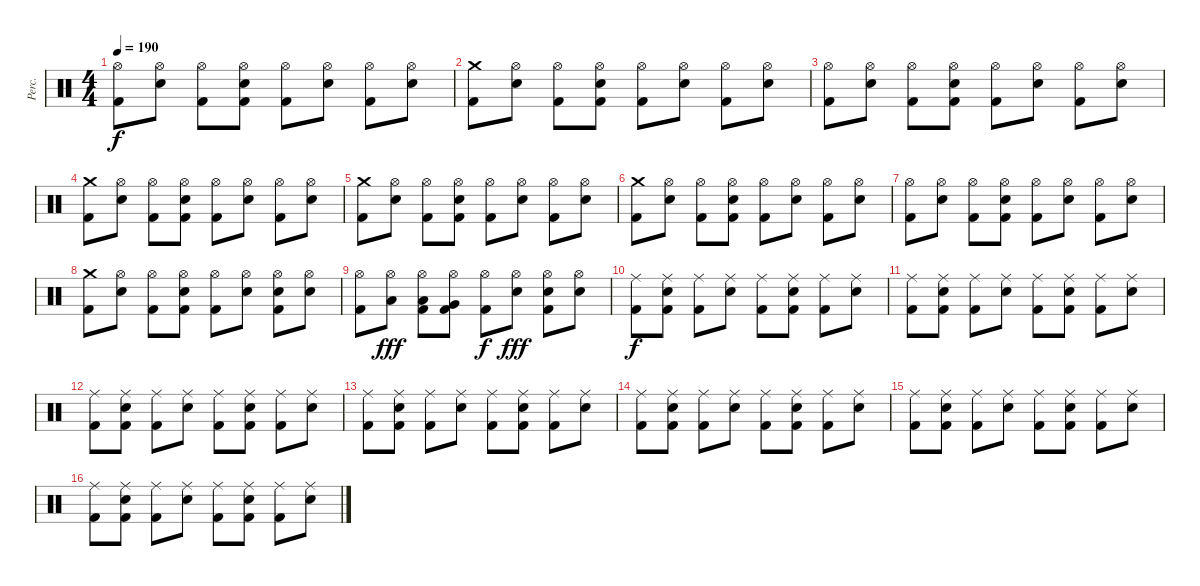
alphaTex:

\track ("Perc." "Perc.") {instrument percussion}
\staff {score}
\articulation defaults
\ts (4 4)
\tempo 190
\clef neutral
\ks c
("Hi-Hat (open)" "Kick (hit) 2").8{dy f} ("Hi-Hat (open)" "Snare (hit) 2").8 ("Hi-Hat (open)" "Kick (hit) 2").8 ("Hi-Hat (open)" "Snare (hit) 2" "Kick (hit) 2").8 ("Hi-Hat (open)" "Kick (hit) 2").8 ("Hi-Hat (open)" "Snare (hit) 2").8 ("Hi-Hat (open)" "Kick (hit) 2").8 ("Hi-Hat (open)" "Snare (hit) 2").8 |
("Crash medium (hit)" "Kick (hit) 2").8 ("Hi-Hat (open)" "Snare (hit) 2").8 ("Hi-Hat (open)" "Kick (hit) 2").8 ("Hi-Hat (open)" "Snare (hit) 2" "Kick (hit) 2").8 ("Hi-Hat (open)" "Kick (hit) 2").8 ("Hi-Hat (open)" "Snare (hit) 2").8 ("Hi-Hat (open)" "Kick (hit) 2").8 ("Hi-Hat (open)" "Snare (hit) 2").8 |
("Hi-Hat (open)" "Kick (hit) 2").8 ("Hi-Hat (open)" "Snare (hit) 2").8 ("Hi-Hat (open)" "Kick (hit) 2").8 ("Hi-Hat (open)" "Snare (hit) 2" "Kick (hit) 2").8 ("Hi-Hat (open)" "Kick (hit) 2").8 ("Hi-Hat (open)" "Snare (hit) 2").8 ("Hi-Hat (open)" "Kick (hit) 2").8 ("Hi-Hat (open)" "Snare (hit) 2").8 |
("Crash medium (hit)" "Kick (hit) 2").8 ("Hi-Hat (open)" "Snare (hit) 2").8 ("Hi-Hat (open)" "Kick (hit) 2").8 ("Hi-Hat (open)" "Snare (hit) 2" "Kick (hit) 2").8 ("Hi-Hat (open)" "Kick (hit) 2").8 ("Hi-Hat (open)" "Snare (hit) 2").8 ("Hi-Hat (open)" "Kick (hit) 2").8 ("Hi-Hat (open)" "Snare (hit) 2").8 |
("Crash medium (hit)" "Kick (hit) 2").8 ("Hi-Hat (open)" "Snare (hit) 2").8 ("Hi-Hat (open)" "Kick (hit) 2").8 ("Hi-Hat (open)" "Snare (hit) 2" "Kick (hit) 2").8 ("Hi-Hat (open)" "Kick (hit) 2").8 ("Hi-Hat (open)" "Snare (hit) 2").8 ("Hi-Hat (open)" "Kick (hit) 2").8 ("Hi-Hat (open)" "Snare (hit) 2").8 |
("Crash medium (hit)" "Kick (hit) 2").8 ("Hi-Hat (open)" "Snare (hit) 2").8 ("Hi-Hat (open)" "Kick (hit) 2").8 ("Hi-Hat (open)" "Snare (hit) 2" "Kick (hit) 2").8 ("Hi-Hat (open)" "Kick (hit) 2").8 ("Hi-Hat (open)" "Snare (hit) 2").8 ("Hi-Hat (open)" "Kick (hit) 2").8 ("Hi-Hat (open)" "Snare (hit) 2").8 |
("Hi-Hat (open)" "Kick (hit) 2").8 ("Hi-Hat (open)" "Snare (hit) 2").8 ("Hi-Hat (open)" "Kick (hit) 2").8 ("Hi-Hat (open)" "Snare (hit) 2" "Kick (hit) 2").8 ("Hi-Hat (open)" "Kick (hit) 2").8 ("Hi-Hat (open)" "Snare (hit) 2").8 ("Hi-Hat (open)" "Kick (hit) 2").8 ("Hi-Hat (open)" "Snare (hit) 2").8 |
("Crash medium (hit)" "Kick (hit) 2").8 ("Hi-Hat (open)" "Snare (hit) 2").8 ("Hi-Hat (open)" "Kick (hit) 2").8 ("Hi-Hat (open)" "Snare (hit) 2" "Kick (hit) 2").8 ("Hi-Hat (open)" "Kick (hit) 2").8 ("Hi-Hat (open)" "Snare (hit) 2").8 ("Hi-Hat (open)" "Snare (hit) 2" "Kick (hit) 2").8 ("Hi-Hat (open)" "Snare (hit) 2").8 |
("Hi-Hat (open)" "Kick (hit) 2").8 ("Hi-Hat (open)" "Low Tom (hit)").8{dy fff} ("Hi-Hat (open)" "Low Tom (hit)" "Kick (hit) 2").8 ("Hi-Hat (open)" "Very Low Tom (hit)" "Kick (hit) 2").8 ("Hi-Hat (open)" "Kick (hit) 2").8{dy f} ("Hi-Hat (open)" "Snare (hit) 2").8{dy fff} ("Hi-Hat (open)" "Snare (hit) 2" "Kick (hit) 2").8 ("Hi-Hat (open)" "Snare (hit) 2").8 |
("Kick (hit) 2" "Ride (middle)").8{dy f} ("Kick (hit) 2" "Snare (hit) 2" "Ride (middle)").8 ("Kick (hit) 2" "Ride (middle)").8 ("Snare (hit) 2" "Ride (middle)").8 ("Kick (hit) 2" "Ride (middle)").8 ("Kick (hit) 2" "Snare (hit) 2" "Ride (middle)").8 ("Kick (hit) 2" "Ride (middle)").8 ("Snare (hit) 2" "Ride (middle)").8 |
("Kick (hit) 2" "Ride (middle)").8 ("Kick (hit) 2" "Snare (hit) 2" "Ride (middle)").8 ("Kick (hit) 2" "Ride (middle)").8 ("Snare (hit) 2" "Ride (middle)").8 ("Kick (hit) 2" "Ride (middle)").8 ("Kick (hit) 2" "Snare (hit) 2" "Ride (middle)").8 ("Kick (hit) 2" "Ride (middle)").8 ("Snare (hit) 2" "Ride (middle)").8 |
("Kick (hit) 2" "Ride (middle)").8 ("Kick (hit) 2" "Snare (hit) 2" "Ride (middle)").8 ("Kick (hit) 2" "Ride (middle)").8 ("Snare (hit) 2" "Ride (middle)").8 ("Kick (hit) 2" "Ride (middle)").8 ("Kick (hit) 2" "Snare (hit) 2" "Ride (middle)").8 ("Kick (hit) 2" "Ride (middle)").8 ("Snare (hit) 2" "Ride (middle)").8 |
("Kick (hit) 2" "Ride (middle)").8 ("Kick (hit) 2" "Snare (hit) 2" "Ride (middle)").8 ("Kick (hit) 2" "Ride (middle)").8 ("Snare (hit) 2" "Ride (middle)").8 ("Kick (hit) 2" "Ride (middle)").8 ("Kick (hit) 2" "Snare (hit) 2" "Ride (middle)").8 ("Kick (hit) 2" "Ride (middle)").8 ("Snare (hit) 2" "Ride (middle)").8 |
("Kick (hit) 2" "Ride (middle)").8 ("Kick (hit) 2" "Snare (hit) 2" "Ride (middle)").8 ("Kick (hit) 2" "Ride (middle)").8 ("Snare (hit) 2" "Ride (middle)").8 ("Kick (hit) 2" "Ride (middle)").8 ("Kick (hit) 2" "Snare (hit) 2" "Ride (middle)").8 ("Kick (hit) 2" "Ride (middle)").8 ("Snare (hit) 2" "Ride (middle)").8 |
("Kick (hit) 2" "Ride (middle)").8 ("Kick (hit) 2" "Snare (hit) 2" "Ride (middle)").8 ("Kick (hit) 2" "Ride (middle)").8 ("Snare (hit) 2" "Ride (middle)").8 ("Kick (hit) 2" "Ride (middle)").8 ("Kick (hit) 2" "Snare (hit) 2" "Ride (middle)").8 ("Kick (hit) 2" "Ride (middle)").8 ("Snare (hit) 2" "Ride (middle)").8 |
("Kick (hit) 2" "Ride (middle)").8 ("Kick (hit) 2" "Snare (hit) 2" "Ride (middle)").8 ("Kick (hit) 2" "Ride (middle)").8 ("Snare (hit) 2" "Ride (middle)").8 ("Kick (hit) 2" "Ride (middle)").8 ("Kick (hit) 2" "Snare (hit) 2" "Ride (middle)").8 ("Kick (hit) 2" "Ride (middle)").8 ("Snare (hit) 2" "Ride (middle)").8
